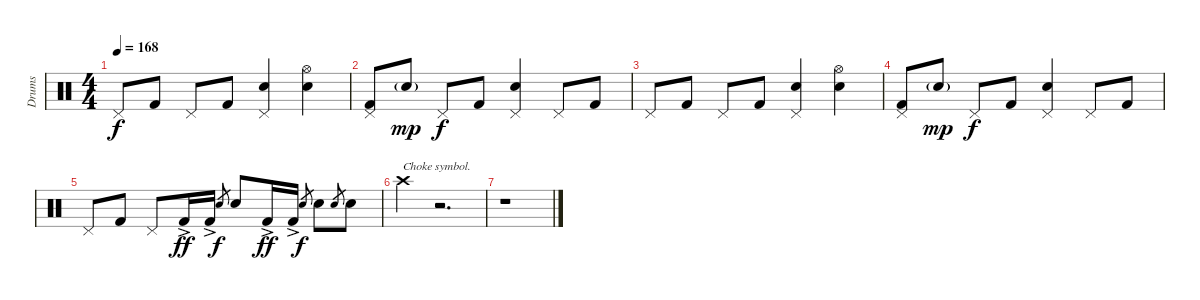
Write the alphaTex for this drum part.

\track ("Drums" "Drums") {instrument percussion}
\staff {score}
\articulation defaults
\ts (4 4)
\tempo 168
\clef neutral
\ks c "Pedal Hi-Hat (hit)".8{dy f} "Kick (hit) 2".8 "Pedal Hi-Hat (hit)".8 "Kick (hit) 2".8
("Pedal Hi-Hat (hit)" "Snare (hit) 2").4 ("Hi-Hat (open)" "Snare (hit) 2").4 |
("Pedal Hi-Hat (hit)" "Kick (hit) 2").8 "Snare (hit) 2"{g}.8{dy mp} "Pedal Hi-Hat (hit)".8{dy f} "Kick (hit) 2".8 ("Pedal Hi-Hat (hit)" "Snare (hit) 2").4 "Pedal Hi-Hat (hit)".8 "Kick (hit) 2".8 |
"Pedal Hi-Hat (hit)".8 "Kick (hit) 2".8 "Pedal Hi-Hat (hit)".8 "Kick (hit) 2".8 ("Pedal Hi-Hat (hit)" "Snare (hit) 2").4 ("Hi-Hat (open)" "Snare (hit) 2").4 |
("Pedal Hi-Hat (hit)" "Kick (hit) 2").8 "Snare (hit) 2"{g}.8{dy mp} "Pedal Hi-Hat (hit)".8{dy f} "Kick (hit) 2".8 ("Pedal Hi-Hat (hit)" "Snare (hit) 2").4 "Pedal Hi-Hat (hit)".8 "Kick (hit) 2".8 |
"Pedal Hi-Hat (hit)".8 "Kick (hit) 2".8 "Pedal Hi-Hat (hit)".8 "Kick (hit) 2"{ac}.16{dy ff} "Kick (hit) 2"{ac}.16 "Snare (hit) 2".8{gr dy f} "Snare (hit) 2".8 "Kick (hit) 2"{ac}.16{dy ff} "Kick (hit) 2"{ac}.16 "Snare (hit) 2".8{gr dy f} "Snare (hit) 2".8 "Snare (hit) 2".8{gr} "Snare (hit) 2".8 |
"Crash high (hit)".4{txt "Choke symbol."} r.2{d volume 4} |
r.1
